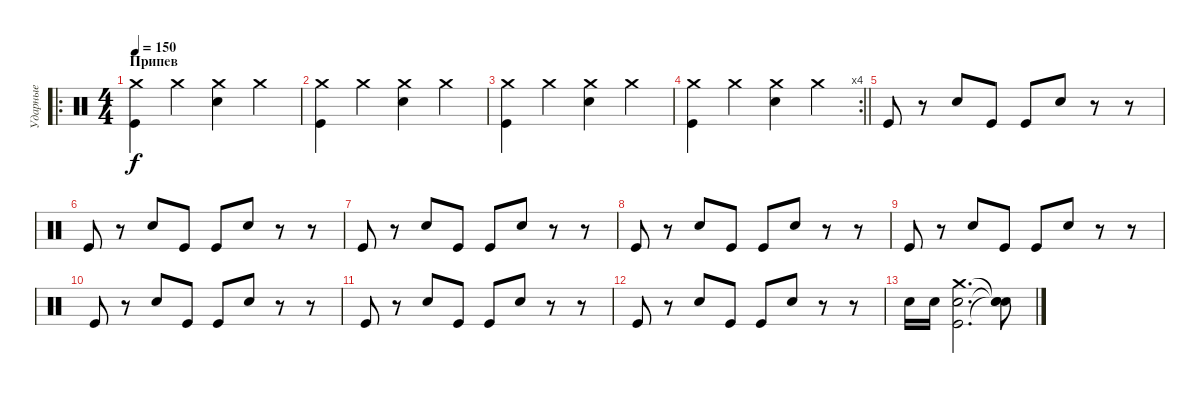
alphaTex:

\track ("Ударные" "Ударные") {instrument percussion}
\staff {score}
\articulation defaults
\ro
\ts (4 4)
\section ("" "Припев")
\tempo 150
\clef neutral
\ks c
("Crash medium (hit)" "Kick (hit)").4{dy f} "Crash medium (hit)".4 ("Crash medium (hit)" "Snare (hit) 2").4 "Crash medium (hit)".4 |
("Crash medium (hit)" "Kick (hit)").4 "Crash medium (hit)".4 ("Crash medium (hit)" "Snare (hit) 2").4 "Crash medium (hit)".4 |
("Crash medium (hit)" "Kick (hit)").4 "Crash medium (hit)".4 ("Crash medium (hit)" "Snare (hit) 2").4 "Crash medium (hit)".4 |
\rc 4
\barLineRight lightlight
("Crash medium (hit)" "Kick (hit)").4 "Crash medium (hit)".4 ("Crash medium (hit)" "Snare (hit) 2").4 "Crash medium (hit)".4 |
"Kick (hit)".8 r.8 "Snare (hit) 2".8 "Kick (hit)".8 "Kick (hit)".8 "Snare (hit) 2".8 r.8 r.8 |
"Kick (hit)".8 r.8 "Snare (hit) 2".8 "Kick (hit)".8 "Kick (hit)".8 "Snare (hit) 2".8 r.8 r.8 |
"Kick (hit)".8 r.8 "Snare (hit) 2".8 "Kick (hit)".8 "Kick (hit)".8 "Snare (hit) 2".8 r.8 r.8 |
"Kick (hit)".8 r.8 "Snare (hit) 2".8 "Kick (hit)".8 "Kick (hit)".8 "Snare (hit) 2".8 r.8 r.8 |
"Kick (hit)".8 r.8 "Snare (hit) 2".8 "Kick (hit)".8 "Kick (hit)".8 "Snare (hit) 2".8 r.8 r.8 |
"Kick (hit)".8 r.8 "Snare (hit) 2".8 "Kick (hit)".8 "Kick (hit)".8 "Snare (hit) 2".8 r.8 r.8 |
"Kick (hit)".8 r.8 "Snare (hit) 2".8 "Kick (hit)".8 "Kick (hit)".8 "Snare (hit) 2".8 r.8 r.8 |
"Kick (hit)".8 r.8 "Snare (hit) 2".8 "Kick (hit)".8 "Kick (hit)".8 "Snare (hit) 2".8 r.8 r.8 |
"Snare (hit) 2".16 "Snare (hit) 2".16 ("Snare (hit) 2" "Crash medium (hit)" "Kick (hit)").2{d} ("Snare (hit)"{t} "Snare (hit)"{t} "Snare (hit)"{t}).8
